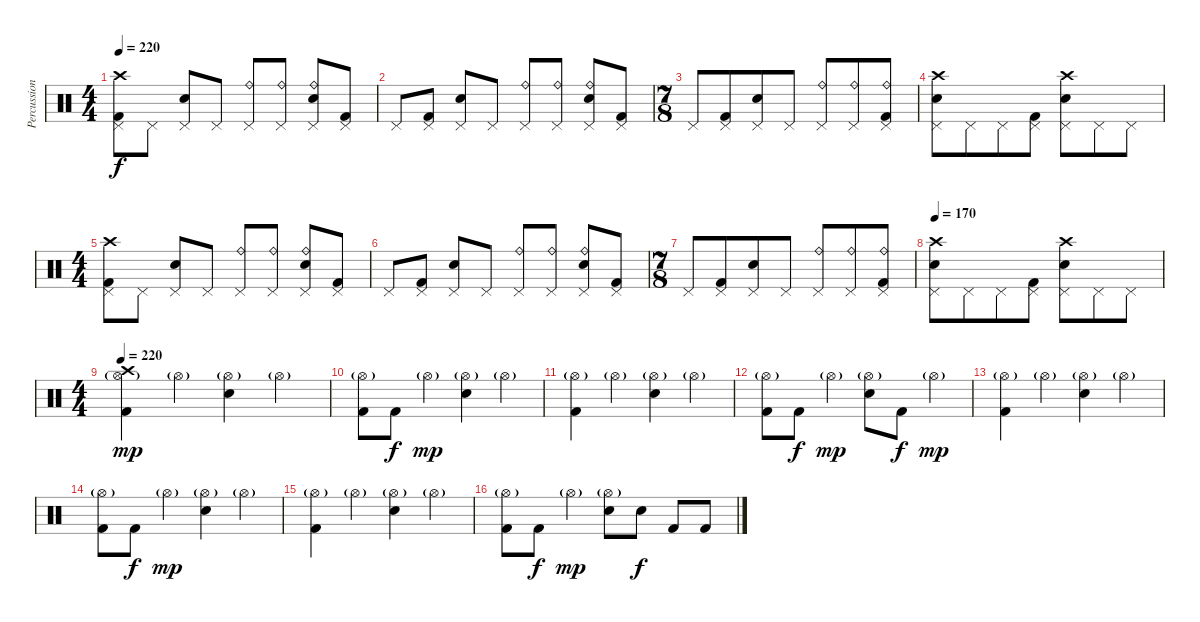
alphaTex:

\track ("Percussion" "Percussion") {instrument percussion}
\staff {score}
\articulation defaults
\ts (4 4)
\tempo 220
\clef neutral
\ks c
("Crash high (hit)" "Pedal Hi-Hat (hit)" "Kick (hit) 2").8{dy f} "Pedal Hi-Hat (hit)".8 ("Pedal Hi-Hat (hit)" "Snare (hit) 2").8 "Pedal Hi-Hat (hit)".8 ("Ride (bell)" "Pedal Hi-Hat (hit)").8 ("Ride (bell)" "Pedal Hi-Hat (hit)").8 ("Ride (bell)" "Pedal Hi-Hat (hit)" "Snare (hit) 2").8 ("Pedal Hi-Hat (hit)" "Kick (hit) 2").8 |
"Pedal Hi-Hat (hit)".8 ("Pedal Hi-Hat (hit)" "Kick (hit) 2").8 ("Pedal Hi-Hat (hit)" "Snare (hit) 2").8 "Pedal Hi-Hat (hit)".8 ("Ride (bell)" "Pedal Hi-Hat (hit)").8 ("Ride (bell)" "Pedal Hi-Hat (hit)").8 ("Ride (bell)" "Pedal Hi-Hat (hit)" "Snare (hit) 2").8 ("Pedal Hi-Hat (hit)" "Kick (hit) 2").8 |
\ts (7 8)
"Pedal Hi-Hat (hit)".8 ("Pedal Hi-Hat (hit)" "Kick (hit) 2").8 ("Pedal Hi-Hat (hit)" "Snare (hit) 2").8 "Pedal Hi-Hat (hit)".8 ("Ride (bell)" "Pedal Hi-Hat (hit)").8 ("Ride (bell)" "Pedal Hi-Hat (hit)").8 ("Ride (bell)" "Pedal Hi-Hat (hit)" "Kick (hit) 2").8 |
("Pedal Hi-Hat (hit)" "Crash high (hit)" "Snare (hit) 2").8 "Pedal Hi-Hat (hit)".8 "Pedal Hi-Hat (hit)".8 ("Pedal Hi-Hat (hit)" "Kick (hit) 2").8 ("Pedal Hi-Hat (hit)" "Crash high (hit)" "Snare (hit) 2").8 "Pedal Hi-Hat (hit)".8 "Pedal Hi-Hat (hit)".8 |
\ts (4 4)
("Crash high (hit)" "Pedal Hi-Hat (hit)" "Kick (hit) 2").8 "Pedal Hi-Hat (hit)".8 ("Pedal Hi-Hat (hit)" "Snare (hit) 2").8 "Pedal Hi-Hat (hit)".8 ("Ride (bell)" "Pedal Hi-Hat (hit)").8 ("Ride (bell)" "Pedal Hi-Hat (hit)").8 ("Ride (bell)" "Pedal Hi-Hat (hit)" "Snare (hit) 2").8 ("Pedal Hi-Hat (hit)" "Kick (hit) 2").8 |
"Pedal Hi-Hat (hit)".8 ("Pedal Hi-Hat (hit)" "Kick (hit) 2").8 ("Pedal Hi-Hat (hit)" "Snare (hit) 2").8 "Pedal Hi-Hat (hit)".8 ("Ride (bell)" "Pedal Hi-Hat (hit)").8 ("Ride (bell)" "Pedal Hi-Hat (hit)").8 ("Ride (bell)" "Pedal Hi-Hat (hit)" "Snare (hit) 2").8 ("Pedal Hi-Hat (hit)" "Kick (hit) 2").8 |
\ts (7 8)
"Pedal Hi-Hat (hit)".8 ("Pedal Hi-Hat (hit)" "Kick (hit) 2").8 ("Pedal Hi-Hat (hit)" "Snare (hit) 2").8 "Pedal Hi-Hat (hit)".8 ("Ride (bell)" "Pedal Hi-Hat (hit)").8 ("Ride (bell)" "Pedal Hi-Hat (hit)").8 ("Ride (bell)" "Pedal Hi-Hat (hit)" "Kick (hit) 2").8 |
\tempo 170
("Pedal Hi-Hat (hit)" "Crash high (hit)" "Snare (hit) 2").8 "Pedal Hi-Hat (hit)".8 "Pedal Hi-Hat (hit)".8 ("Pedal Hi-Hat (hit)" "Kick (hit) 2").8 ("Pedal Hi-Hat (hit)" "Crash high (hit)" "Snare (hit) 2").8 "Pedal Hi-Hat (hit)".8 "Pedal Hi-Hat (hit)".8 |
\ts (4 4)
\tempo 220
("Hi-Hat (open)"{g} "Crash high (hit)" "Kick (hit) 2").4{dy mp} "Hi-Hat (open)"{g}.4 ("Hi-Hat (open)"{g} "Snare (hit) 2").4 "Hi-Hat (open)"{g}.4 |
("Hi-Hat (open)"{g} "Kick (hit) 2").8 "Kick (hit) 2".8{dy f} "Hi-Hat (open)"{g}.4{dy mp} ("Hi-Hat (open)"{g} "Snare (hit) 2").4 "Hi-Hat (open)"{g}.4 |
("Hi-Hat (open)"{g} "Kick (hit) 2").4 "Hi-Hat (open)"{g}.4 ("Hi-Hat (open)"{g} "Snare (hit) 2").4 "Hi-Hat (open)"{g}.4 |
("Hi-Hat (open)"{g} "Kick (hit) 2").8 "Kick (hit) 2".8{dy f} "Hi-Hat (open)"{g}.4{dy mp} ("Hi-Hat (open)"{g} "Snare (hit) 2").8 "Kick (hit) 2".8{dy f} "Hi-Hat (open)"{g}.4{dy mp} |
("Hi-Hat (open)"{g} "Kick (hit) 2").4 "Hi-Hat (open)"{g}.4 ("Hi-Hat (open)"{g} "Snare (hit) 2").4 "Hi-Hat (open)"{g}.4 |
("Hi-Hat (open)"{g} "Kick (hit) 2").8 "Kick (hit) 2".8{dy f} "Hi-Hat (open)"{g}.4{dy mp} ("Hi-Hat (open)"{g} "Snare (hit) 2").4 "Hi-Hat (open)"{g}.4 |
("Hi-Hat (open)"{g} "Kick (hit) 2").4 "Hi-Hat (open)"{g}.4 ("Hi-Hat (open)"{g} "Snare (hit) 2").4 "Hi-Hat (open)"{g}.4 |
("Hi-Hat (open)"{g} "Kick (hit) 2").8 "Kick (hit) 2".8{dy f} "Hi-Hat (open)"{g}.4{dy mp} ("Hi-Hat (open)"{g} "Snare (hit) 2").8 "Snare (hit) 2".8{dy f} "Kick (hit) 2".8 "Kick (hit) 2".8
